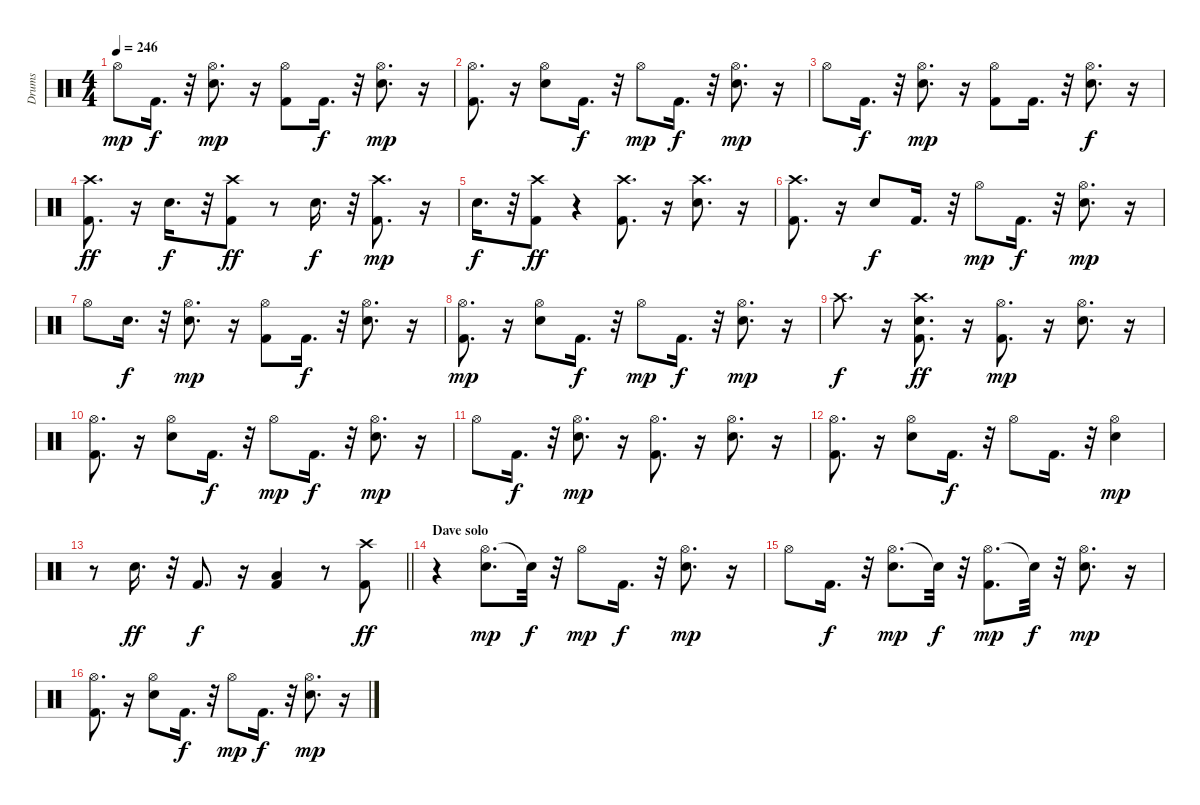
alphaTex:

\track ("Drums" "Drums") {instrument percussion}
\staff {score}
\articulation defaults
\ts (4 4)
\tempo 246
\clef neutral
\ks c "Hi-Hat (open)".8{dy mp} "Kick (hit) 2".16{d dy f}
r.32 ("Hi-Hat (open)" "Electric Snare (hit)").8{d dy mp} r.16 ("Hi-Hat (open)" "Kick (hit) 2").8 "Kick (hit) 2".16{d dy f} r.32 ("Hi-Hat (open)" "Electric Snare (hit)").8{d dy mp} r.16 |
("Hi-Hat (open)" "Kick (hit) 2").8{d} r.16 ("Hi-Hat (open)" "Electric Snare (hit)").8 "Kick (hit) 2".16{d dy f} r.32 "Hi-Hat (open)".8{dy mp} "Kick (hit) 2".16{d dy f} r.32 ("Hi-Hat (open)" "Electric Snare (hit)").8{d dy mp} r.16 |
"Hi-Hat (open)".8 "Kick (hit) 2".16{d dy f} r.32 ("Hi-Hat (open)" "Electric Snare (hit)").8{d dy mp} r.16 ("Hi-Hat (open)" "Kick (hit) 2").8 "Kick (hit) 2".16{d} r.32 ("Hi-Hat (open)" "Electric Snare (hit)").8{d dy f} r.16 |
("Crash high (hit)" "Kick (hit) 2").8{d dy ff} r.16 "Electric Snare (hit)".16{d dy f} r.32 ("Crash high (hit)" "Kick (hit) 2").8{dy ff} r.8 "Electric Snare (hit)".16{d dy f} r.32 ("Crash high (hit)" "Kick (hit) 2").8{d dy mp} r.16 |
"Electric Snare (hit)".16{d dy f} r.32 ("Crash high (hit)" "Kick (hit) 2").8{dy ff} r.4 ("Crash high (hit)" "Kick (hit) 2").8{d} r.16 ("Crash high (hit)" "Electric Snare (hit)").8{d} r.16 |
("Crash high (hit)" "Kick (hit) 2").8{d} r.16 "Electric Snare (hit)".8{dy f} "Kick (hit) 2".16{d} r.32 "Hi-Hat (open)".8{dy mp} "Kick (hit) 2".16{d dy f} r.32 ("Hi-Hat (open)" "Electric Snare (hit)").8{d dy mp} r.16 |
"Hi-Hat (open)".8 "Snare (hit)".16{d dy f} r.32 ("Hi-Hat (open)" "Electric Snare (hit)").8{d dy mp} r.16 ("Hi-Hat (open)" "Kick (hit) 2").8 "Kick (hit) 2".16{d dy f} r.32 ("Hi-Hat (open)" "Electric Snare (hit)").8{d} r.16 |
("Hi-Hat (open)" "Kick (hit) 2").8{d dy mp} r.16 ("Hi-Hat (open)" "Electric Snare (hit)").8 "Kick (hit) 2".16{d dy f} r.32 "Hi-Hat (open)".8{dy mp} "Kick (hit) 2".16{d dy f} r.32 ("Hi-Hat (open)" "Electric Snare (hit)").8{d dy mp} r.16 |
"Crash high (hit)".8{d dy f} r.16 ("Crash high (hit)" "Electric Snare (hit)" "Kick (hit) 2").8{d dy ff} r.16 ("Hi-Hat (open)" "Kick (hit) 2").8{d dy mp} r.16 ("Hi-Hat (open)" "Electric Snare (hit)").8{d} r.16 |
("Hi-Hat (open)" "Kick (hit) 2").8{d} r.16 ("Hi-Hat (open)" "Electric Snare (hit)").8 "Kick (hit) 2".16{d dy f} r.32 "Hi-Hat (open)".8{dy mp} "Kick (hit) 2".16{d dy f} r.32 ("Hi-Hat (open)" "Electric Snare (hit)").8{d dy mp} r.16 |
"Hi-Hat (open)".8 "Kick (hit) 2".16{d dy f} r.32 ("Hi-Hat (open)" "Electric Snare (hit)").8{d dy mp} r.16 ("Hi-Hat (open)" "Kick (hit) 2").8{d} r.16 ("Electric Snare (hit)" "Hi-Hat (open)").8{d} r.16 |
("Kick (hit) 2" "Hi-Hat (open)").8{d} r.16 ("Hi-Hat (open)" "Electric Snare (hit)").8 "Kick (hit) 2".16{d dy f} r.32 "Hi-Hat (open)".8 "Kick (hit) 2".16{d} r.32 ("Electric Snare (hit)" "Hi-Hat (open)").4{dy mp} |
\barLineRight lightlight
r.8 "Electric Snare (hit)".16{d dy ff} r.32 "Kick (hit) 2".8{d dy f} r.16 ("Kick (hit) 2" "Low Tom (hit)").4 r.8 ("Kick (hit) 2" "Crash high (hit)").8{dy ff} |
\section ("" "Dave solo")
r.4 ("Hi-Hat (open)" "Electric Snare (hit)").8{d dy mp} "Snare (hit)"{t}.32{dy f} r.32 "Hi-Hat (open)".8{dy mp} "Kick (hit) 2".16{d dy f} r.32 ("Hi-Hat (open)" "Electric Snare (hit)").8{d dy mp} r.16 |
"Hi-Hat (open)".8 "Kick (hit) 2".16{d dy f} r.32 ("Hi-Hat (open)" "Electric Snare (hit)").8{d dy mp} "Snare (hit)"{t}.32{dy f} r.32 ("Hi-Hat (open)" "Kick (hit) 2").8{d dy mp} "Snare (hit)"{t}.32{dy f} r.32 ("Hi-Hat (open)" "Electric Snare (hit)").8{d dy mp} r.16 |
("Hi-Hat (open)" "Kick (hit) 2").8{d} r.16 ("Hi-Hat (open)" "Electric Snare (hit)").8 "Kick (hit) 2".16{d dy f} r.32 "Hi-Hat (open)".8{dy mp} "Kick (hit) 2".16{d dy f} r.32 ("Hi-Hat (open)" "Electric Snare (hit)").8{d dy mp} r.16
